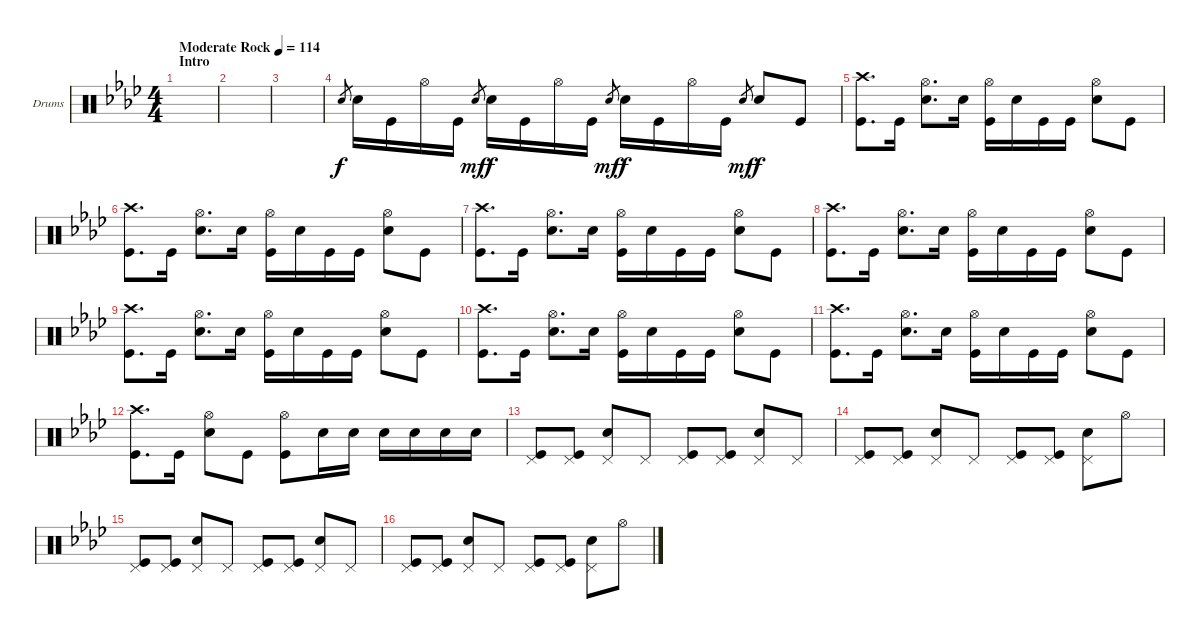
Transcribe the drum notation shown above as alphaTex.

\defaultSystemsLayout 4
\bracketExtendMode groupsimilarinstruments
\firstSystemTrackNameOrientation horizontal
\otherSystemsTrackNameOrientation horizontal
\track ("Drumkit" "Drums") {instrument percussion}
\staff {score}
\articulation defaults
\ts (4 4)
\section ("" "Intro")
\tempo (114 "Moderate Rock")
\clef neutral
\scale
1.09458
\ks ab
|
\scale
0.905422 |
\scale
1.06431 |
\scale
0.935687 "Snare (hit) 2".8{gr} "Snare (hit) 2".16{dy f} "Kick (hit)".16 "Hi-Hat (open)".16 "Kick (hit)".16 "Snare (hit) 2".8{gr dy mf} "Snare (hit) 2".16{dy f} "Kick (hit)".16 "Hi-Hat (open)".16 "Kick (hit)".16 "Snare (hit) 2".8{gr dy mf} "Snare (hit) 2".16{dy f} "Kick (hit)".16 "Hi-Hat (open)".16 "Kick (hit)".16 "Snare (hit) 2".8{gr dy mf} "Snare (hit) 2".8{dy f} "Kick (hit)".8 |
\scale
1.06431 ("Crash high (hit)" "Kick (hit)").8{d} "Kick (hit)".16 ("Hi-Hat (open)" "Snare (hit) 2").8{d} "Snare (hit) 2".16 ("Hi-Hat (open)" "Kick (hit)").16 "Snare (hit) 2".16 "Kick (hit)".16 "Kick (hit)".16 ("Hi-Hat (open)" "Snare (hit) 2").8 "Kick (hit)".8 |
\scale
0.935687 ("Crash high (hit)" "Kick (hit)").8{d} "Kick (hit)".16 ("Hi-Hat (open)" "Snare (hit) 2").8{d} "Snare (hit) 2".16 ("Hi-Hat (open)" "Kick (hit)").16 "Snare (hit) 2".16 "Kick (hit)".16 "Kick (hit)".16 ("Hi-Hat (open)" "Snare (hit) 2").8 "Kick (hit)".8 |
\scale
1.06431 ("Crash high (hit)" "Kick (hit)").8{d} "Kick (hit)".16 ("Hi-Hat (open)" "Snare (hit) 2").8{d} "Snare (hit) 2".16 ("Hi-Hat (open)" "Kick (hit)").16 "Snare (hit) 2".16 "Kick (hit)".16 "Kick (hit)".16 ("Hi-Hat (open)" "Snare (hit) 2").8 "Kick (hit)".8 |
\scale
0.935687 ("Crash high (hit)" "Kick (hit)").8{d} "Kick (hit)".16 ("Hi-Hat (open)" "Snare (hit) 2").8{d} "Snare (hit) 2".16 ("Hi-Hat (open)" "Kick (hit)").16 "Snare (hit) 2".16 "Kick (hit)".16 "Kick (hit)".16 ("Hi-Hat (open)" "Snare (hit) 2").8 "Kick (hit)".8 |
\scale
1.06431 ("Crash high (hit)" "Kick (hit)").8{d} "Kick (hit)".16 ("Hi-Hat (open)" "Snare (hit) 2").8{d} "Snare (hit) 2".16 ("Hi-Hat (open)" "Kick (hit)").16 "Snare (hit) 2".16 "Kick (hit)".16 "Kick (hit)".16 ("Hi-Hat (open)" "Snare (hit) 2").8 "Kick (hit)".8 |
\scale
0.935687 ("Crash high (hit)" "Kick (hit)").8{d} "Kick (hit)".16 ("Hi-Hat (open)" "Snare (hit) 2").8{d} "Snare (hit) 2".16 ("Hi-Hat (open)" "Kick (hit)").16 "Snare (hit) 2".16 "Kick (hit)".16 "Kick (hit)".16 ("Hi-Hat (open)" "Snare (hit) 2").8 "Kick (hit)".8 |
\scale
1.06431 ("Crash high (hit)" "Kick (hit)").8{d} "Kick (hit)".16 ("Hi-Hat (open)" "Snare (hit) 2").8{d} "Snare (hit) 2".16 ("Hi-Hat (open)" "Kick (hit)").16 "Snare (hit) 2".16 "Kick (hit)".16 "Kick (hit)".16 ("Hi-Hat (open)" "Snare (hit) 2").8 "Kick (hit)".8 |
\scale
0.935687 ("Crash high (hit)" "Kick (hit)").8{d} "Kick (hit)".16 ("Hi-Hat (open)" "Snare (hit) 2").8 "Kick (hit)".8 ("Hi-Hat (open)" "Kick (hit)").8 "Snare (hit) 2".16 "Snare (hit) 2".16 "Snare (hit) 2".16 "Snare (hit) 2".16 "Snare (hit) 2".16 "Snare (hit) 2".16 |
\scale
1.06431 ("Pedal Hi-Hat (hit)" "Kick (hit)").8 ("Pedal Hi-Hat (hit)" "Kick (hit)").8 ("Pedal Hi-Hat (hit)" "Snare (hit) 2").8 "Pedal Hi-Hat (hit)".8 ("Pedal Hi-Hat (hit)" "Kick (hit)").8 ("Pedal Hi-Hat (hit)" "Kick (hit)").8 ("Pedal Hi-Hat (hit)" "Snare (hit) 2").8 "Pedal Hi-Hat (hit)".8 |
\scale
0.935687 ("Pedal Hi-Hat (hit)" "Kick (hit)").8 ("Pedal Hi-Hat (hit)" "Kick (hit)").8 ("Pedal Hi-Hat (hit)" "Snare (hit) 2").8 "Pedal Hi-Hat (hit)".8 ("Pedal Hi-Hat (hit)" "Kick (hit)").8 ("Pedal Hi-Hat (hit)" "Kick (hit)").8 ("Pedal Hi-Hat (hit)" "Snare (hit) 2").8 "Hi-Hat (open)".8 |
\scale
1.06431 ("Pedal Hi-Hat (hit)" "Kick (hit)").8 ("Pedal Hi-Hat (hit)" "Kick (hit)").8 ("Pedal Hi-Hat (hit)" "Snare (hit) 2").8 "Pedal Hi-Hat (hit)".8 ("Pedal Hi-Hat (hit)" "Kick (hit)").8 ("Pedal Hi-Hat (hit)" "Kick (hit)").8 ("Pedal Hi-Hat (hit)" "Snare (hit) 2").8 "Pedal Hi-Hat (hit)".8 |
\scale
0.935687 ("Pedal Hi-Hat (hit)" "Kick (hit)").8 ("Pedal Hi-Hat (hit)" "Kick (hit)").8 ("Pedal Hi-Hat (hit)" "Snare (hit) 2").8 "Pedal Hi-Hat (hit)".8 ("Pedal Hi-Hat (hit)" "Kick (hit)").8 ("Pedal Hi-Hat (hit)" "Kick (hit)").8 ("Pedal Hi-Hat (hit)" "Snare (hit) 2").8 "Hi-Hat (open)".8
